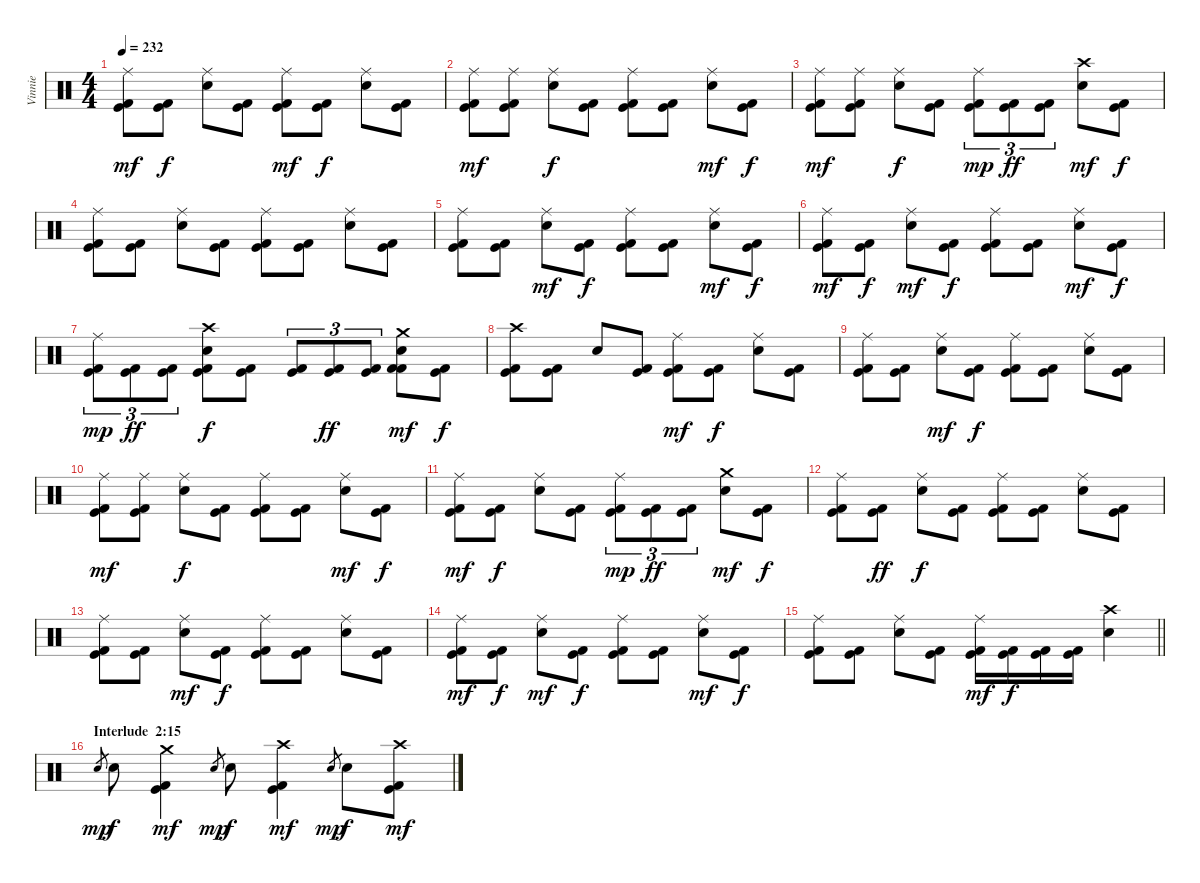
\track ("Vinnie" "Vinnie") {instrument percussion}
\staff {score}
\articulation defaults
\ts (4 4)
\tempo 232
\clef neutral
\ks c
("Ride (middle)" "Kick (hit)" "Kick (hit) 2").8{dy mf} ("Kick (hit)" "Kick (hit) 2").8{dy f} ("Ride (middle)" "Electric Snare (hit)").8 ("Kick (hit)" "Kick (hit) 2").8 ("Ride (middle)" "Kick (hit)" "Kick (hit) 2").8{dy mf} ("Kick (hit)" "Kick (hit) 2").8{dy f} ("Ride (middle)" "Electric Snare (hit)").8 ("Kick (hit)" "Kick (hit) 2").8 |
("Ride (middle)" "Kick (hit)" "Kick (hit) 2").8{dy mf} ("Ride (middle)" "Kick (hit)" "Kick (hit) 2").8 ("Ride (middle)" "Electric Snare (hit)").8{dy f} ("Kick (hit)" "Kick (hit) 2").8 ("Ride (middle)" "Kick (hit)" "Kick (hit) 2").8 ("Kick (hit)" "Kick (hit) 2").8 ("Ride (middle)" "Electric Snare (hit)").8{dy mf} ("Kick (hit)" "Kick (hit) 2").8{dy f} |
("Ride (middle)" "Kick (hit)" "Kick (hit) 2").8{dy mf} ("Ride (middle)" "Kick (hit)" "Kick (hit) 2").8 ("Ride (middle)" "Electric Snare (hit)").8{dy f} ("Kick (hit)" "Kick (hit) 2").8 ("Ride (middle)" "Kick (hit)" "Kick (hit) 2").8{tu (3 2) dy mp} ("Kick (hit)" "Kick (hit) 2").8{tu (3 2) dy ff} ("Kick (hit)" "Kick (hit) 2").8{tu (3 2)} ("Crash high (hit)" "Electric Snare (hit)").8{dy mf} ("Kick (hit)" "Kick (hit) 2").8{dy f} |
("Ride (middle)" "Kick (hit)" "Kick (hit) 2").8 ("Kick (hit)" "Kick (hit) 2").8 ("Ride (middle)" "Electric Snare (hit)").8 ("Kick (hit)" "Kick (hit) 2").8 ("Ride (middle)" "Kick (hit)" "Kick (hit) 2").8 ("Kick (hit)" "Kick (hit) 2").8 ("Ride (middle)" "Electric Snare (hit)").8 ("Kick (hit)" "Kick (hit) 2").8 |
("Ride (middle)" "Kick (hit)" "Kick (hit) 2").8 ("Kick (hit)" "Kick (hit) 2").8 ("Ride (middle)" "Electric Snare (hit)").8{dy mf} ("Kick (hit)" "Kick (hit) 2").8{dy f} ("Ride (middle)" "Kick (hit)" "Kick (hit) 2").8 ("Kick (hit)" "Kick (hit) 2").8 ("Ride (middle)" "Electric Snare (hit)").8{dy mf} ("Kick (hit)" "Kick (hit) 2").8{dy f} |
("Ride (middle)" "Kick (hit)" "Kick (hit) 2").8{dy mf} ("Kick (hit)" "Kick (hit) 2").8{dy f} ("Ride (middle)" "Electric Snare (hit)").8{dy mf} ("Kick (hit)" "Kick (hit) 2").8{dy f} ("Ride (middle)" "Kick (hit)" "Kick (hit) 2").8 ("Kick (hit)" "Kick (hit) 2").8 ("Ride (middle)" "Electric Snare (hit)").8{dy mf} ("Kick (hit)" "Kick (hit) 2").8{dy f} |
("Ride (middle)" "Kick (hit)" "Kick (hit) 2").8{tu (3 2) dy mp} ("Kick (hit)" "Kick (hit) 2").8{tu (3 2) dy ff} ("Kick (hit)" "Kick (hit) 2").8{tu (3 2)} ("Crash high (hit)" "Electric Snare (hit)" "Kick (hit)" "Kick (hit) 2").8{dy f} ("Kick (hit)" "Kick (hit) 2").8 ("Kick (hit)" "Kick (hit) 2").8{tu (3 2)} ("Kick (hit)" "Kick (hit) 2").8{tu (3 2) dy ff} ("Kick (hit)" "Kick (hit) 2").8{tu (3 2)} ("Crash medium (hit)" "Electric Snare (hit)" "Kick (hit) 2" "Kick (hit) 2").8{dy mf} ("Kick (hit)" "Kick (hit) 2").8{dy f} |
("Crash high (hit)" "Kick (hit)" "Kick (hit) 2").8 ("Kick (hit)" "Kick (hit) 2").8 "Electric Snare (hit)".8 ("Kick (hit)" "Kick (hit) 2").8 ("Ride (middle)" "Kick (hit)" "Kick (hit) 2").8{dy mf} ("Kick (hit)" "Kick (hit) 2").8{dy f} ("Ride (middle)" "Electric Snare (hit)").8 ("Kick (hit)" "Kick (hit) 2").8 |
("Ride (middle)" "Kick (hit)" "Kick (hit) 2").8 ("Kick (hit)" "Kick (hit) 2").8 ("Ride (middle)" "Electric Snare (hit)").8{dy mf} ("Kick (hit)" "Kick (hit) 2").8{dy f} ("Ride (middle)" "Kick (hit)" "Kick (hit) 2").8 ("Kick (hit)" "Kick (hit) 2").8 ("Ride (middle)" "Electric Snare (hit)").8 ("Kick (hit)" "Kick (hit) 2").8 |
("Ride (middle)" "Kick (hit)" "Kick (hit) 2").8{dy mf} ("Ride (middle)" "Kick (hit)" "Kick (hit) 2").8 ("Ride (middle)" "Electric Snare (hit)").8{dy f} ("Kick (hit)" "Kick (hit) 2").8 ("Ride (middle)" "Kick (hit)" "Kick (hit) 2").8 ("Kick (hit)" "Kick (hit) 2").8 ("Ride (middle)" "Electric Snare (hit)").8{dy mf} ("Kick (hit)" "Kick (hit) 2").8{dy f} |
("Ride (middle)" "Kick (hit)" "Kick (hit) 2").8{dy mf} ("Kick (hit)" "Kick (hit) 2").8{dy f} ("Ride (middle)" "Electric Snare (hit)").8 ("Kick (hit)" "Kick (hit) 2").8 ("Ride (middle)" "Kick (hit)" "Kick (hit) 2").8{tu (3 2) dy mp} ("Kick (hit)" "Kick (hit) 2").8{tu (3 2) dy ff} ("Kick (hit)" "Kick (hit) 2").8{tu (3 2)} ("Crash medium (hit)" "Electric Snare (hit)").8{dy mf} ("Kick (hit)" "Kick (hit) 2").8{dy f} |
("Ride (middle)" "Kick (hit)" "Kick (hit) 2").8 ("Kick (hit)" "Kick (hit) 2").8{dy ff} ("Ride (middle)" "Electric Snare (hit)").8{dy f} ("Kick (hit)" "Kick (hit) 2").8 ("Ride (middle)" "Kick (hit)" "Kick (hit) 2").8 ("Kick (hit)" "Kick (hit) 2").8 ("Ride (middle)" "Electric Snare (hit)").8 ("Kick (hit)" "Kick (hit) 2").8 |
("Ride (middle)" "Kick (hit)" "Kick (hit) 2").8 ("Kick (hit)" "Kick (hit) 2").8 ("Ride (middle)" "Electric Snare (hit)").8{dy mf} ("Kick (hit)" "Kick (hit) 2").8{dy f} ("Ride (middle)" "Kick (hit)" "Kick (hit) 2").8 ("Kick (hit)" "Kick (hit) 2").8 ("Ride (middle)" "Electric Snare (hit)").8 ("Kick (hit)" "Kick (hit) 2").8 |
("Ride (middle)" "Kick (hit)" "Kick (hit) 2").8{dy mf} ("Kick (hit)" "Kick (hit) 2").8{dy f} ("Ride (middle)" "Electric Snare (hit)").8{dy mf} ("Kick (hit)" "Kick (hit) 2").8{dy f} ("Ride (middle)" "Kick (hit)" "Kick (hit) 2").8 ("Kick (hit)" "Kick (hit) 2").8 ("Ride (middle)" "Electric Snare (hit)").8{dy mf} ("Kick (hit)" "Kick (hit) 2").8{dy f} |
\barLineRight lightlight
("Ride (middle)" "Kick (hit)" "Kick (hit) 2").8 ("Kick (hit)" "Kick (hit) 2").8 ("Ride (middle)" "Electric Snare (hit)").8 ("Kick (hit)" "Kick (hit) 2").8 ("Ride (middle)" "Kick (hit)" "Kick (hit) 2").16{dy mf} ("Kick (hit)" "Kick (hit) 2").16{dy f} ("Kick (hit)" "Kick (hit) 2").16 ("Kick (hit)" "Kick (hit) 2").16 ("Crash high (hit)" "Electric Snare (hit)").4 |
\section ("" "Interlude  2:15")
"Electric Snare (hit)".8{gr dy mp} "Electric Snare (hit)".8{dy f} ("Crash medium (hit)" "Kick (hit)" "Kick (hit) 2").4{dy mf} "Electric Snare (hit)".8{gr dy mp} "Electric Snare (hit)".8{dy f} ("Crash high (hit)" "Kick (hit)" "Kick (hit) 2").4{dy mf} "Electric Snare (hit)".8{gr dy mp} "Electric Snare (hit)".8{dy f} ("Crash high (hit)" "Kick (hit)" "Kick (hit) 2").8{dy mf}
